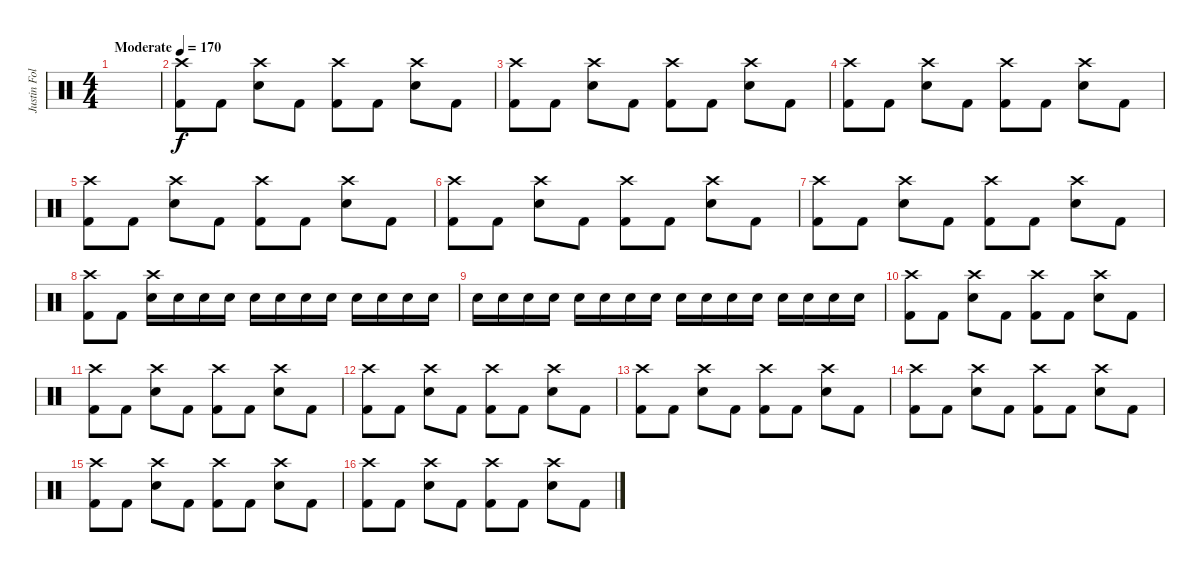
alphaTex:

\track ("Justin Foley" "Justin Fol") {instrument percussion}
\staff {score}
\articulation defaults
\ts (4 4)
\tempo (170 "Moderate")
\clef neutral
\ks c
|
("Crash high (hit)" "Kick (hit) 2").8 "Kick (hit) 2".8 ("Crash high (hit)" "Snare (hit) 2").8 "Kick (hit) 2".8 ("Crash high (hit)" "Kick (hit) 2").8 "Kick (hit) 2".8 ("Crash high (hit)" "Snare (hit) 2").8 "Kick (hit) 2".8 |
("Crash high (hit)" "Kick (hit) 2").8 "Kick (hit) 2".8 ("Crash high (hit)" "Snare (hit) 2").8 "Kick (hit) 2".8 ("Crash high (hit)" "Kick (hit) 2").8 "Kick (hit) 2".8 ("Crash high (hit)" "Snare (hit) 2").8 "Kick (hit) 2".8 |
("Crash high (hit)" "Kick (hit) 2").8 "Kick (hit) 2".8 ("Crash high (hit)" "Snare (hit) 2").8 "Kick (hit) 2".8 ("Crash high (hit)" "Kick (hit) 2").8 "Kick (hit) 2".8 ("Crash high (hit)" "Snare (hit) 2").8 "Kick (hit) 2".8 |
("Crash high (hit)" "Kick (hit) 2").8 "Kick (hit) 2".8 ("Crash high (hit)" "Snare (hit) 2").8 "Kick (hit) 2".8 ("Crash high (hit)" "Kick (hit) 2").8 "Kick (hit) 2".8 ("Crash high (hit)" "Snare (hit) 2").8 "Kick (hit) 2".8 |
("Crash high (hit)" "Kick (hit) 2").8 "Kick (hit) 2".8 ("Crash high (hit)" "Snare (hit) 2").8 "Kick (hit) 2".8 ("Crash high (hit)" "Kick (hit) 2").8 "Kick (hit) 2".8 ("Crash high (hit)" "Snare (hit) 2").8 "Kick (hit) 2".8 |
("Crash high (hit)" "Kick (hit) 2").8 "Kick (hit) 2".8 ("Crash high (hit)" "Snare (hit) 2").8 "Kick (hit) 2".8 ("Crash high (hit)" "Kick (hit) 2").8 "Kick (hit) 2".8 ("Crash high (hit)" "Snare (hit) 2").8 "Kick (hit) 2".8 |
("Crash high (hit)" "Kick (hit) 2").8 "Kick (hit) 2".8 ("Crash high (hit)" "Snare (hit) 2").16 "Snare (hit) 2".16 "Snare (hit) 2".16 "Snare (hit) 2".16 "Snare (hit) 2".16 "Snare (hit) 2".16 "Snare (hit) 2".16 "Snare (hit) 2".16 "Snare (hit) 2".16 "Snare (hit) 2".16 "Snare (hit) 2".16 "Snare (hit) 2".16 |
"Snare (hit) 2".16 "Snare (hit) 2".16 "Snare (hit) 2".16 "Snare (hit) 2".16 "Snare (hit) 2".16 "Snare (hit) 2".16 "Snare (hit) 2".16 "Snare (hit) 2".16 "Snare (hit) 2".16 "Snare (hit) 2".16 "Snare (hit) 2".16 "Snare (hit) 2".16 "Snare (hit) 2".16 "Snare (hit) 2".16 "Snare (hit) 2".16 "Snare (hit) 2".16 |
("Crash high (hit)" "Kick (hit) 2").8 "Kick (hit) 2".8 ("Crash high (hit)" "Snare (hit) 2").8 "Kick (hit) 2".8 ("Crash high (hit)" "Kick (hit) 2").8 "Kick (hit) 2".8 ("Crash high (hit)" "Snare (hit) 2").8 "Kick (hit) 2".8 |
("Crash high (hit)" "Kick (hit) 2").8 "Kick (hit) 2".8 ("Crash high (hit)" "Snare (hit) 2").8 "Kick (hit) 2".8 ("Crash high (hit)" "Kick (hit) 2").8 "Kick (hit) 2".8 ("Crash high (hit)" "Snare (hit) 2").8 "Kick (hit) 2".8 |
("Crash high (hit)" "Kick (hit) 2").8 "Kick (hit) 2".8 ("Crash high (hit)" "Snare (hit) 2").8 "Kick (hit) 2".8 ("Crash high (hit)" "Kick (hit) 2").8 "Kick (hit) 2".8 ("Crash high (hit)" "Snare (hit) 2").8 "Kick (hit) 2".8 |
("Crash high (hit)" "Kick (hit) 2").8 "Kick (hit) 2".8 ("Crash high (hit)" "Snare (hit) 2").8 "Kick (hit) 2".8 ("Crash high (hit)" "Kick (hit) 2").8 "Kick (hit) 2".8 ("Crash high (hit)" "Snare (hit) 2").8 "Kick (hit) 2".8 |
("Crash high (hit)" "Kick (hit) 2").8 "Kick (hit) 2".8 ("Crash high (hit)" "Snare (hit) 2").8 "Kick (hit) 2".8 ("Crash high (hit)" "Kick (hit) 2").8 "Kick (hit) 2".8 ("Crash high (hit)" "Snare (hit) 2").8 "Kick (hit) 2".8 |
("Crash high (hit)" "Kick (hit) 2").8 "Kick (hit) 2".8 ("Crash high (hit)" "Snare (hit) 2").8 "Kick (hit) 2".8 ("Crash high (hit)" "Kick (hit) 2").8 "Kick (hit) 2".8 ("Crash high (hit)" "Snare (hit) 2").8 "Kick (hit) 2".8 |
("Crash high (hit)" "Kick (hit) 2").8 "Kick (hit) 2".8 ("Crash high (hit)" "Snare (hit) 2").8 "Kick (hit) 2".8 ("Crash high (hit)" "Kick (hit) 2").8 "Kick (hit) 2".8 ("Crash high (hit)" "Snare (hit) 2").8 "Kick (hit) 2".8
